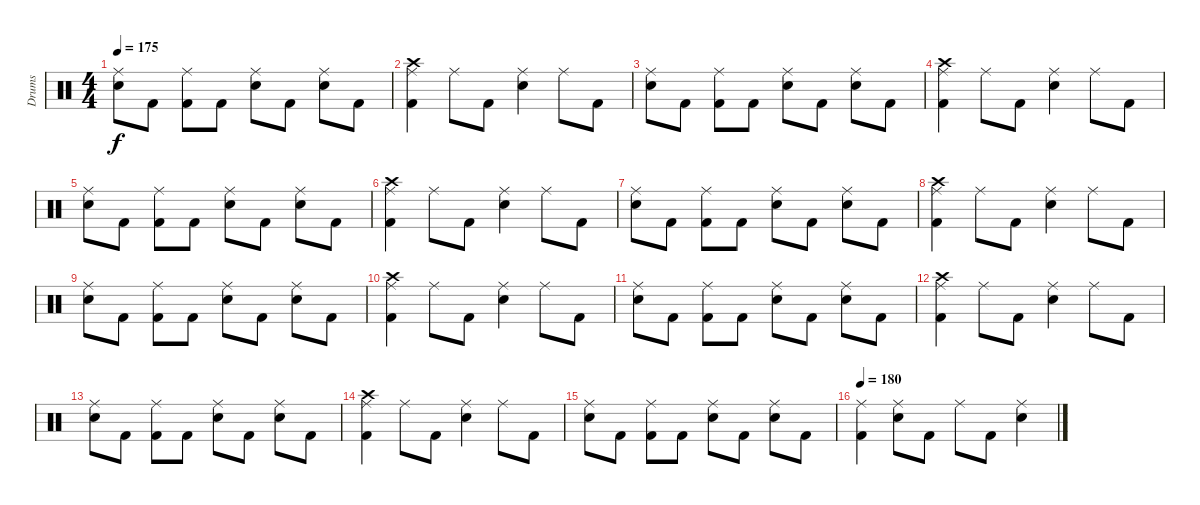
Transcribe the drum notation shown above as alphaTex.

\track ("Drums" "Drums") {instrument percussion}
\staff {score}
\articulation defaults
\ts (4 4)
\tempo 175
\clef neutral
\ks c
("Ride (middle)" "Electric Snare (hit)").8{dy f} "Kick (hit) 2".8 ("Ride (middle)" "Kick (hit) 2").8 "Kick (hit) 2".8 ("Ride (middle)" "Electric Snare (hit)").8 "Kick (hit) 2".8 ("Ride (middle)" "Electric Snare (hit)").8 "Kick (hit) 2".8 |
("Ride (middle)" "Crash high (hit)" "Kick (hit) 2").4 "Ride (middle)".8 "Kick (hit) 2".8 ("Ride (middle)" "Electric Snare (hit)").4 "Ride (middle)".8 "Kick (hit) 2".8 |
("Ride (middle)" "Electric Snare (hit)").8 "Kick (hit) 2".8 ("Ride (middle)" "Kick (hit) 2").8 "Kick (hit) 2".8 ("Ride (middle)" "Electric Snare (hit)").8 "Kick (hit) 2".8 ("Ride (middle)" "Electric Snare (hit)").8 "Kick (hit) 2".8 |
("Ride (middle)" "Crash high (hit)" "Kick (hit) 2").4 "Ride (middle)".8 "Kick (hit) 2".8 ("Ride (middle)" "Electric Snare (hit)").4 "Ride (middle)".8 "Kick (hit) 2".8 |
("Ride (middle)" "Electric Snare (hit)").8 "Kick (hit) 2".8 ("Ride (middle)" "Kick (hit) 2").8 "Kick (hit) 2".8 ("Ride (middle)" "Electric Snare (hit)").8 "Kick (hit) 2".8 ("Ride (middle)" "Electric Snare (hit)").8 "Kick (hit) 2".8 |
("Ride (middle)" "Crash high (hit)" "Kick (hit) 2").4 "Ride (middle)".8 "Kick (hit) 2".8 ("Ride (middle)" "Electric Snare (hit)").4 "Ride (middle)".8 "Kick (hit) 2".8 |
("Ride (middle)" "Electric Snare (hit)").8 "Kick (hit) 2".8 ("Ride (middle)" "Kick (hit) 2").8 "Kick (hit) 2".8 ("Ride (middle)" "Electric Snare (hit)").8 "Kick (hit) 2".8 ("Ride (middle)" "Electric Snare (hit)").8 "Kick (hit) 2".8 |
("Ride (middle)" "Crash high (hit)" "Kick (hit) 2").4 "Ride (middle)".8 "Kick (hit) 2".8 ("Ride (middle)" "Electric Snare (hit)").4 "Ride (middle)".8 "Kick (hit) 2".8 |
("Ride (middle)" "Electric Snare (hit)").8 "Kick (hit) 2".8 ("Ride (middle)" "Kick (hit) 2").8 "Kick (hit) 2".8 ("Ride (middle)" "Electric Snare (hit)").8 "Kick (hit) 2".8 ("Ride (middle)" "Electric Snare (hit)").8 "Kick (hit) 2".8 |
("Ride (middle)" "Crash high (hit)" "Kick (hit) 2").4 "Ride (middle)".8 "Kick (hit) 2".8 ("Ride (middle)" "Electric Snare (hit)").4 "Ride (middle)".8 "Kick (hit) 2".8 |
("Ride (middle)" "Electric Snare (hit)").8 "Kick (hit) 2".8 ("Ride (middle)" "Kick (hit) 2").8 "Kick (hit) 2".8 ("Ride (middle)" "Electric Snare (hit)").8 "Kick (hit) 2".8 ("Ride (middle)" "Electric Snare (hit)").8 "Kick (hit) 2".8 |
("Ride (middle)" "Crash high (hit)" "Kick (hit) 2").4 "Ride (middle)".8 "Kick (hit) 2".8 ("Ride (middle)" "Electric Snare (hit)").4 "Ride (middle)".8 "Kick (hit) 2".8 |
("Ride (middle)" "Electric Snare (hit)").8 "Kick (hit) 2".8 ("Ride (middle)" "Kick (hit) 2").8 "Kick (hit) 2".8 ("Ride (middle)" "Electric Snare (hit)").8 "Kick (hit) 2".8 ("Ride (middle)" "Electric Snare (hit)").8 "Kick (hit) 2".8 |
("Ride (middle)" "Crash high (hit)" "Kick (hit) 2").4 "Ride (middle)".8 "Kick (hit) 2".8 ("Ride (middle)" "Electric Snare (hit)").4 "Ride (middle)".8 "Kick (hit) 2".8 |
("Ride (middle)" "Electric Snare (hit)").8 "Kick (hit) 2".8 ("Ride (middle)" "Kick (hit) 2").8 "Kick (hit) 2".8 ("Ride (middle)" "Electric Snare (hit)").8 "Kick (hit) 2".8 ("Ride (middle)" "Electric Snare (hit)").8 "Kick (hit) 2".8 |
\tempo 180
("Ride (middle)" "Kick (hit) 2").4 ("Ride (middle)" "Electric Snare (hit)").8 "Kick (hit) 2".8 "Ride (middle)".8 "Kick (hit) 2".8 ("Ride (middle)" "Electric Snare (hit)").4
